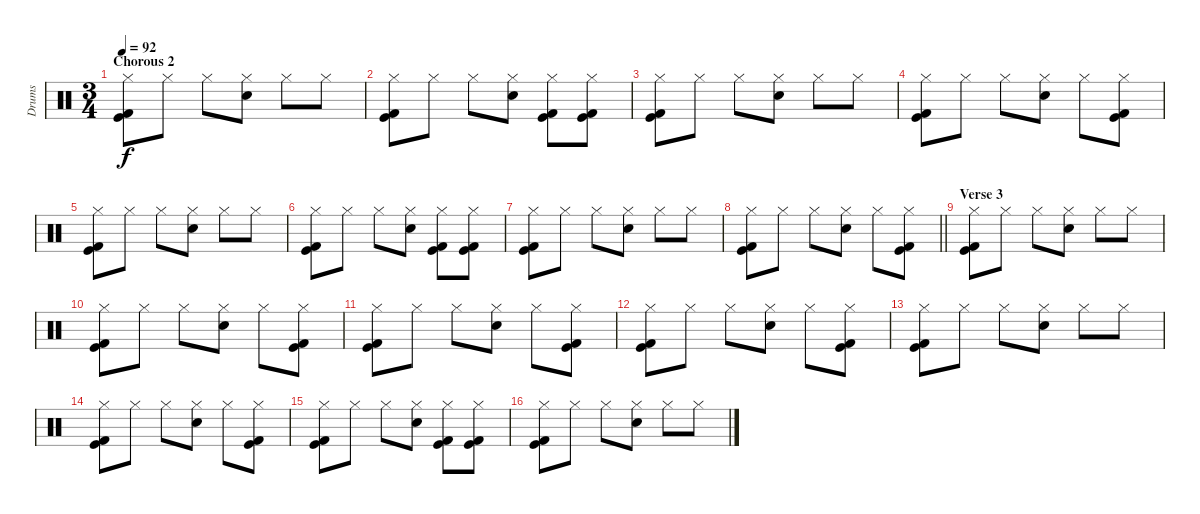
\track ("Drums" "Drums") {instrument percussion}
\staff {score}
\articulation defaults
\ts (3 4)
\section ("" "Chorous 2")
\tempo 92
\clef neutral
\ks c
("Hi-Hat (closed)" "Kick (hit)" "Kick (hit) 2").8{dy f} "Hi-Hat (closed)".8 "Hi-Hat (closed)".8 ("Hi-Hat (closed)" "Electric Snare (hit)").8 "Hi-Hat (closed)".8 "Hi-Hat (closed)".8 |
("Hi-Hat (closed)" "Kick (hit)" "Kick (hit) 2").8 "Hi-Hat (closed)".8 "Hi-Hat (closed)".8 ("Hi-Hat (closed)" "Electric Snare (hit)").8 ("Hi-Hat (closed)" "Kick (hit)" "Kick (hit) 2").8 ("Hi-Hat (closed)" "Kick (hit)" "Kick (hit) 2").8 |
("Hi-Hat (closed)" "Kick (hit)" "Kick (hit) 2").8 "Hi-Hat (closed)".8 "Hi-Hat (closed)".8 ("Hi-Hat (closed)" "Electric Snare (hit)").8 "Hi-Hat (closed)".8 "Hi-Hat (closed)".8 |
("Hi-Hat (closed)" "Kick (hit)" "Kick (hit) 2").8 "Hi-Hat (closed)".8 "Hi-Hat (closed)".8 ("Hi-Hat (closed)" "Electric Snare (hit)").8 "Hi-Hat (closed)".8 ("Hi-Hat (closed)" "Kick (hit)" "Kick (hit) 2").8 |
("Hi-Hat (closed)" "Kick (hit)" "Kick (hit) 2").8 "Hi-Hat (closed)".8 "Hi-Hat (closed)".8 ("Hi-Hat (closed)" "Electric Snare (hit)").8 "Hi-Hat (closed)".8 "Hi-Hat (closed)".8 |
("Hi-Hat (closed)" "Kick (hit)" "Kick (hit) 2").8 "Hi-Hat (closed)".8 "Hi-Hat (closed)".8 ("Hi-Hat (closed)" "Electric Snare (hit)").8 ("Hi-Hat (closed)" "Kick (hit)" "Kick (hit) 2").8 ("Hi-Hat (closed)" "Kick (hit)" "Kick (hit) 2").8 |
("Hi-Hat (closed)" "Kick (hit)" "Kick (hit) 2").8 "Hi-Hat (closed)".8 "Hi-Hat (closed)".8 ("Hi-Hat (closed)" "Electric Snare (hit)").8 "Hi-Hat (closed)".8 "Hi-Hat (closed)".8 |
\barLineRight lightlight
("Hi-Hat (closed)" "Kick (hit)" "Kick (hit) 2").8 "Hi-Hat (closed)".8 "Hi-Hat (closed)".8 ("Hi-Hat (closed)" "Electric Snare (hit)").8 "Hi-Hat (closed)".8 ("Hi-Hat (closed)" "Kick (hit)" "Kick (hit) 2").8 |
\section ("" "Verse 3")
("Hi-Hat (closed)" "Kick (hit)" "Kick (hit) 2").8 "Hi-Hat (closed)".8 "Hi-Hat (closed)".8 ("Hi-Hat (closed)" "Electric Snare (hit)").8 "Hi-Hat (closed)".8 "Hi-Hat (closed)".8 |
("Hi-Hat (closed)" "Kick (hit)" "Kick (hit) 2").8 "Hi-Hat (closed)".8 "Hi-Hat (closed)".8 ("Hi-Hat (closed)" "Electric Snare (hit)").8 "Hi-Hat (closed)".8 ("Hi-Hat (closed)" "Kick (hit)" "Kick (hit) 2").8 |
("Hi-Hat (closed)" "Kick (hit)" "Kick (hit) 2").8 "Hi-Hat (closed)".8 "Hi-Hat (closed)".8 ("Hi-Hat (closed)" "Electric Snare (hit)").8 "Hi-Hat (closed)".8 ("Hi-Hat (closed)" "Kick (hit)" "Kick (hit) 2").8 |
("Hi-Hat (closed)" "Kick (hit)" "Kick (hit) 2").8 "Hi-Hat (closed)".8 "Hi-Hat (closed)".8 ("Hi-Hat (closed)" "Electric Snare (hit)").8 "Hi-Hat (closed)".8 ("Hi-Hat (closed)" "Kick (hit)" "Kick (hit) 2").8 |
("Hi-Hat (closed)" "Kick (hit)" "Kick (hit) 2").8 "Hi-Hat (closed)".8 "Hi-Hat (closed)".8 ("Hi-Hat (closed)" "Electric Snare (hit)").8 "Hi-Hat (closed)".8 "Hi-Hat (closed)".8 |
("Hi-Hat (closed)" "Kick (hit)" "Kick (hit) 2").8 "Hi-Hat (closed)".8 "Hi-Hat (closed)".8 ("Hi-Hat (closed)" "Electric Snare (hit)").8 "Hi-Hat (closed)".8 ("Hi-Hat (closed)" "Kick (hit)" "Kick (hit) 2").8 |
("Hi-Hat (closed)" "Kick (hit)" "Kick (hit) 2").8 "Hi-Hat (closed)".8 "Hi-Hat (closed)".8 ("Hi-Hat (closed)" "Electric Snare (hit)").8 ("Hi-Hat (closed)" "Kick (hit)" "Kick (hit) 2").8 ("Hi-Hat (closed)" "Kick (hit)" "Kick (hit) 2").8 |
("Hi-Hat (closed)" "Kick (hit)" "Kick (hit) 2").8 "Hi-Hat (closed)".8 "Hi-Hat (closed)".8 ("Hi-Hat (closed)" "Electric Snare (hit)").8 "Hi-Hat (closed)".8 "Hi-Hat (closed)".8
